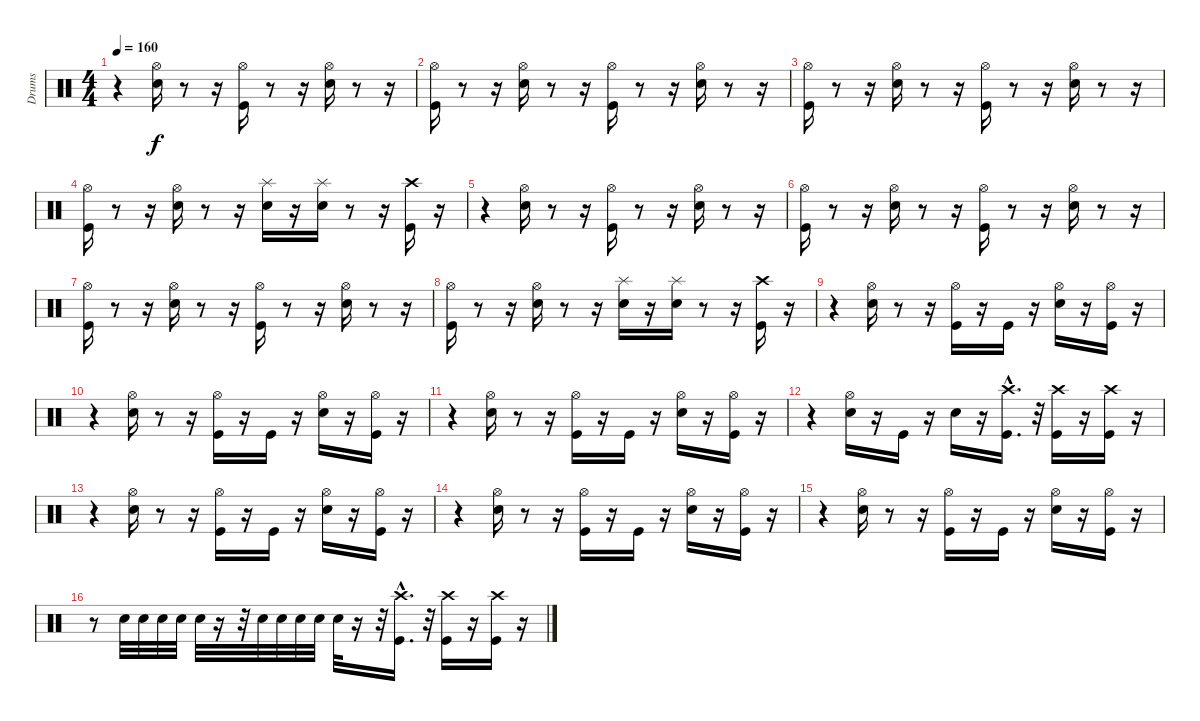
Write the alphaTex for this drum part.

\track ("Drums" "Drums") {instrument percussion}
\staff {score}
\articulation defaults
\ts (4 4)
\tempo 160
\clef neutral
\ks c
r.4{dy f} ("Snare (hit) 2" "Hi-Hat (open)").16 r.8 r.16 ("Kick (hit)" "Hi-Hat (open)").16 r.8 r.16 ("Snare (hit) 2" "Hi-Hat (open)").16 r.8 r.16 |
("Kick (hit)" "Hi-Hat (open)").16 r.8 r.16 ("Hi-Hat (open)" "Snare (hit) 2").16 r.8 r.16 ("Kick (hit)" "Hi-Hat (open)").16 r.8 r.16 ("Snare (hit) 2" "Hi-Hat (open)").16 r.8 r.16 |
("Kick (hit)" "Hi-Hat (open)").16 r.8 r.16 ("Hi-Hat (open)" "Snare (hit) 2").16 r.8 r.16 ("Kick (hit)" "Hi-Hat (open)").16 r.8 r.16 ("Snare (hit) 2" "Hi-Hat (open)").16 r.8 r.16 |
("Kick (hit)" "Hi-Hat (open)").16 r.8 r.16 ("Hi-Hat (open)" "Snare (hit) 2").16 r.8 r.16 ("Snare (hit) 2" "Splash (hit)").16 r.16 ("Snare (hit) 2" "Splash (hit)").16 r.8 r.16 ("Kick (hit)" "Crash high (hit)").16 r.16 |
r.4 ("Hi-Hat (open)" "Snare (hit) 2").16 r.8 r.16 ("Kick (hit)" "Hi-Hat (open)").16 r.8 r.16 ("Snare (hit) 2" "Hi-Hat (open)").16 r.8 r.16 |
("Kick (hit)" "Hi-Hat (open)").16 r.8 r.16 ("Hi-Hat (open)" "Snare (hit) 2").16 r.8 r.16 ("Kick (hit)" "Hi-Hat (open)").16 r.8 r.16 ("Snare (hit) 2" "Hi-Hat (open)").16 r.8 r.16 |
("Kick (hit)" "Hi-Hat (open)").16 r.8 r.16 ("Hi-Hat (open)" "Snare (hit) 2").16 r.8 r.16 ("Kick (hit)" "Hi-Hat (open)").16 r.8 r.16 ("Snare (hit) 2" "Hi-Hat (open)").16 r.8 r.16 |
("Kick (hit)" "Hi-Hat (open)").16 r.8 r.16 ("Hi-Hat (open)" "Snare (hit) 2").16 r.8 r.16 ("Snare (hit) 2" "Splash (hit)").16 r.16 ("Snare (hit) 2" "Splash (hit)").16 r.8 r.16 ("Kick (hit)" "Crash high (hit)").16 r.16 |
r.4 ("Hi-Hat (open)" "Snare (hit) 2").16 r.8 r.16 ("Hi-Hat (open)" "Kick (hit)").16 r.16 "Kick (hit)".16 r.16 ("Snare (hit) 2" "Hi-Hat (open)").16 r.16 ("Kick (hit)" "Hi-Hat (open)").16 r.16 |
r.4 ("Snare (hit) 2" "Hi-Hat (open)").16 r.8 r.16 ("Hi-Hat (open)" "Kick (hit)").16 r.16 "Kick (hit)".16 r.16 ("Snare (hit) 2" "Hi-Hat (open)").16 r.16 ("Kick (hit)" "Hi-Hat (open)").16 r.16 |
r.4 ("Snare (hit) 2" "Hi-Hat (open)").16 r.8 r.16 ("Hi-Hat (open)" "Kick (hit)").16 r.16 "Kick (hit)".16 r.16 ("Snare (hit) 2" "Hi-Hat (open)").16 r.16 ("Kick (hit)" "Hi-Hat (open)").16 r.16 |
r.4 ("Hi-Hat (open)" "Snare (hit) 2").16 r.16 "Kick (hit)".16 r.16 "Snare (hit) 2".16 r.16 ("Kick (hit)"{hac} "Crash high (hit)"{hac}).16{d} r.32 ("Crash high (hit)" "Kick (hit)").16 r.16 ("Kick (hit)" "Crash high (hit)").16 r.16 |
r.4 ("Snare (hit) 2" "Hi-Hat (open)").16 r.8 r.16 ("Hi-Hat (open)" "Kick (hit)").16 r.16 "Kick (hit)".16 r.16 ("Snare (hit) 2" "Hi-Hat (open)").16 r.16 ("Kick (hit)" "Hi-Hat (open)").16 r.16 |
r.4 ("Snare (hit) 2" "Hi-Hat (open)").16 r.8 r.16 ("Hi-Hat (open)" "Kick (hit)").16 r.16 "Kick (hit)".16 r.16 ("Snare (hit) 2" "Hi-Hat (open)").16 r.16 ("Kick (hit)" "Hi-Hat (open)").16 r.16 |
r.4 ("Snare (hit) 2" "Hi-Hat (open)").16 r.8 r.16 ("Hi-Hat (open)" "Kick (hit)").16 r.16 "Kick (hit)".16 r.16 ("Snare (hit) 2" "Hi-Hat (open)").16 r.16 ("Kick (hit)" "Hi-Hat (open)").16 r.16 |
r.8 "Snare (hit) 2".32 "Snare (hit) 2".32 "Snare (hit) 2".32 "Snare (hit) 2".32 "Snare (hit) 2".32 r.16 r.32 "Snare (hit) 2".32 "Snare (hit) 2".32 "Snare (hit) 2".32 "Snare (hit) 2".32 "Snare (hit) 2".32 r.16 r.32 ("Crash high (hit)"{hac} "Kick (hit)"{hac}).16{d} r.32 ("Crash high (hit)" "Kick (hit)").16 r.16 ("Kick (hit)" "Crash high (hit)").16 r.16
